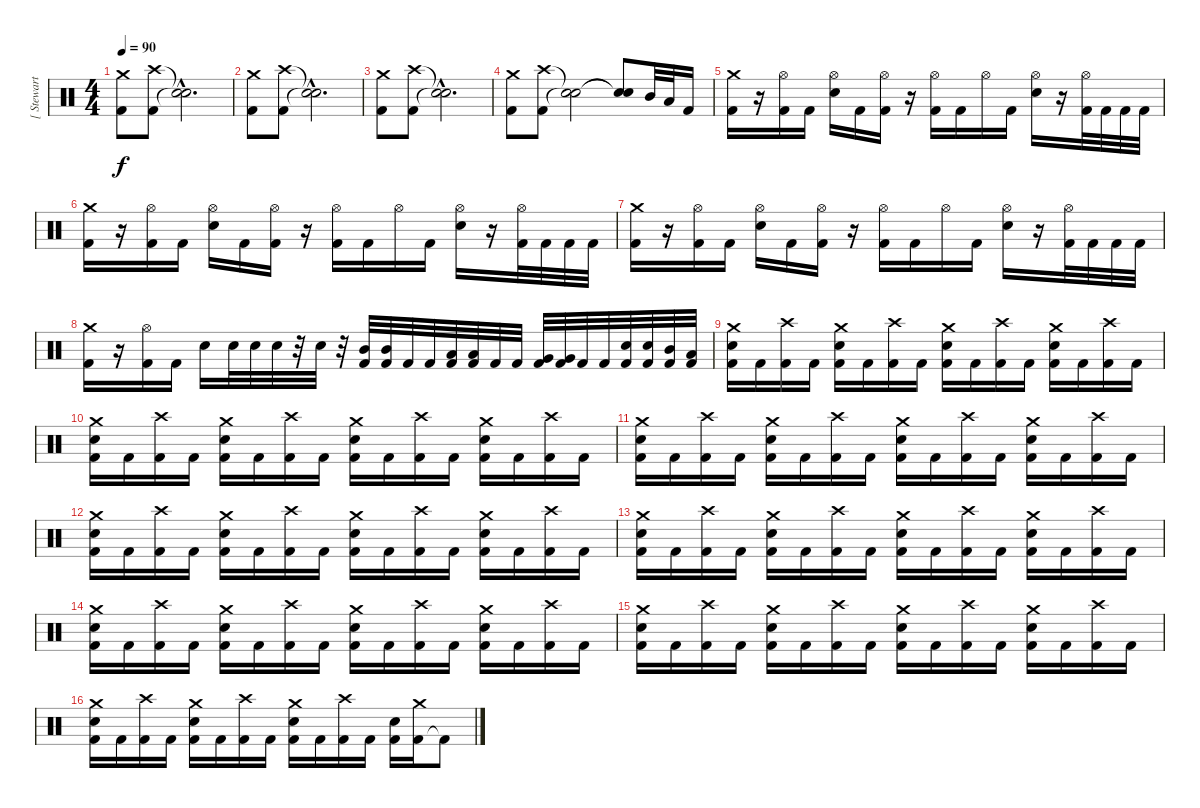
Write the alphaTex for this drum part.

\track ("[ Stewart ]" "[ Stewart ") {instrument percussion}
\staff {score}
\articulation defaults
\ts (4 4)
\tempo 90
\clef neutral
\ks c
("Kick (hit) 2" "Crash medium (hit)").8{dy f} ("Kick (hit) 2" "Crash high (hit)").8 ("Snare (hit)"{hac t} "Snare (hit)"{hac t}).2{d} |
("Kick (hit) 2" "Crash medium (hit)").8 ("Kick (hit) 2" "Crash high (hit)").8 ("Snare (hit)"{hac t} "Snare (hit)"{hac t}).2{d} |
("Kick (hit) 2" "Crash medium (hit)").8 ("Kick (hit) 2" "Crash high (hit)").8 ("Snare (hit)"{hac t} "Snare (hit)"{hac t}).2{d} |
("Kick (hit) 2" "Crash medium (hit)").8 ("Kick (hit) 2" "Crash high (hit)").8 ("Snare (hit)"{t} "Snare (hit)"{t}).2 ("Snare (hit)"{t} "Snare (hit)"{t}).8 "Mid Tom (hit)".32 "Low Tom (hit)".32 "Kick (hit) 2".16 |
("Kick (hit) 2" "Crash medium (hit)").16 r.16 ("Kick (hit) 2" "Hi-Hat (open)").16 "Kick (hit) 2".16 ("Electric Snare (hit)" "Hi-Hat (open)").16 "Kick (hit) 2".16 ("Kick (hit) 2" "Hi-Hat (open)").16 r.16 ("Kick (hit) 2" "Hi-Hat (open)").16 "Kick (hit) 2".16 "Hi-Hat (open)".16 "Kick (hit) 2".16 ("Electric Snare (hit)" "Hi-Hat (open)").16 r.16 ("Kick (hit) 2" "Hi-Hat (open)").32 "Kick (hit) 2".32 "Kick (hit) 2".32 "Kick (hit) 2".32 |
("Kick (hit) 2" "Crash medium (hit)").16 r.16 ("Kick (hit) 2" "Hi-Hat (open)").16 "Kick (hit) 2".16 ("Electric Snare (hit)" "Hi-Hat (open)").16 "Kick (hit) 2".16 ("Kick (hit) 2" "Hi-Hat (open)").16 r.16 ("Kick (hit) 2" "Hi-Hat (open)").16 "Kick (hit) 2".16 "Hi-Hat (open)".16 "Kick (hit) 2".16 ("Electric Snare (hit)" "Hi-Hat (open)").16 r.16 ("Kick (hit) 2" "Hi-Hat (open)").32 "Kick (hit) 2".32 "Kick (hit) 2".32 "Kick (hit) 2".32 |
("Kick (hit) 2" "Crash medium (hit)").16 r.16 ("Kick (hit) 2" "Hi-Hat (open)").16 "Kick (hit) 2".16 ("Electric Snare (hit)" "Hi-Hat (open)").16 "Kick (hit) 2".16 ("Kick (hit) 2" "Hi-Hat (open)").16 r.16 ("Kick (hit) 2" "Hi-Hat (open)").16 "Kick (hit) 2".16 "Hi-Hat (open)".16 "Kick (hit) 2".16 ("Electric Snare (hit)" "Hi-Hat (open)").16 r.16 ("Kick (hit) 2" "Hi-Hat (open)").32 "Kick (hit) 2".32 "Kick (hit) 2".32 "Kick (hit) 2".32 |
("Kick (hit) 2" "Crash medium (hit)").16 r.16 ("Kick (hit) 2" "Hi-Hat (open)").16 "Kick (hit) 2".16 "Electric Snare (hit)".16 "Electric Snare (hit)".32 "Electric Snare (hit)".32 "Electric Snare (hit)".32 r.32 "Electric Snare (hit)".32 r.32 ("Kick (hit) 2" "Mid Tom (hit)").32 ("Kick (hit) 2" "Mid Tom (hit)").32 "Kick (hit) 2".32 "Kick (hit) 2".32 ("Kick (hit) 2" "Low Tom (hit)").32 ("Kick (hit) 2" "Low Tom (hit)").32 "Kick (hit) 2".32 "Kick (hit) 2".32 ("Kick (hit) 2" "Very Low Tom (hit)").32 ("Kick (hit) 2" "Very Low Tom (hit)").32 "Kick (hit) 2".32 "Kick (hit) 2".32 ("Kick (hit) 2" "Electric Snare (hit)").32 ("Kick (hit) 2" "Electric Snare (hit)").32 ("Kick (hit) 2" "Mid Tom (hit)").32 ("Kick (hit) 2" "Low Tom (hit)").32 |
("Kick (hit) 2" "Electric Snare (hit)" "Crash medium (hit)").16 "Kick (hit) 2".16 ("Kick (hit) 2" "Crash high (hit)").16 "Kick (hit) 2".16 ("Kick (hit) 2" "Electric Snare (hit)" "Crash medium (hit)").16 "Kick (hit) 2".16 ("Kick (hit) 2" "Crash high (hit)").16 "Kick (hit) 2".16 ("Kick (hit) 2" "Electric Snare (hit)" "Crash medium (hit)").16 "Kick (hit) 2".16 ("Kick (hit) 2" "Crash high (hit)").16 "Kick (hit) 2".16 ("Kick (hit) 2" "Electric Snare (hit)" "Crash medium (hit)").16 "Kick (hit) 2".16 ("Kick (hit) 2" "Crash high (hit)").16 "Kick (hit) 2".16 |
("Kick (hit) 2" "Electric Snare (hit)" "Crash medium (hit)").16 "Kick (hit) 2".16 ("Kick (hit) 2" "Crash high (hit)").16 "Kick (hit) 2".16 ("Kick (hit) 2" "Electric Snare (hit)" "Crash medium (hit)").16 "Kick (hit) 2".16 ("Kick (hit) 2" "Crash high (hit)").16 "Kick (hit) 2".16 ("Kick (hit) 2" "Electric Snare (hit)" "Crash medium (hit)").16 "Kick (hit) 2".16 ("Kick (hit) 2" "Crash high (hit)").16 "Kick (hit) 2".16 ("Kick (hit) 2" "Electric Snare (hit)" "Crash medium (hit)").16 "Kick (hit) 2".16 ("Kick (hit) 2" "Crash high (hit)").16 "Kick (hit) 2".16 |
("Kick (hit) 2" "Electric Snare (hit)" "Crash medium (hit)").16 "Kick (hit) 2".16 ("Kick (hit) 2" "Crash high (hit)").16 "Kick (hit) 2".16 ("Kick (hit) 2" "Electric Snare (hit)" "Crash medium (hit)").16 "Kick (hit) 2".16 ("Kick (hit) 2" "Crash high (hit)").16 "Kick (hit) 2".16 ("Kick (hit) 2" "Electric Snare (hit)" "Crash medium (hit)").16 "Kick (hit) 2".16 ("Kick (hit) 2" "Crash high (hit)").16 "Kick (hit) 2".16 ("Kick (hit) 2" "Electric Snare (hit)" "Crash medium (hit)").16 "Kick (hit) 2".16 ("Kick (hit) 2" "Crash high (hit)").16 "Kick (hit) 2".16 |
("Kick (hit) 2" "Electric Snare (hit)" "Crash medium (hit)").16 "Kick (hit) 2".16 ("Kick (hit) 2" "Crash high (hit)").16 "Kick (hit) 2".16 ("Kick (hit) 2" "Electric Snare (hit)" "Crash medium (hit)").16 "Kick (hit) 2".16 ("Kick (hit) 2" "Crash high (hit)").16 "Kick (hit) 2".16 ("Kick (hit) 2" "Electric Snare (hit)" "Crash medium (hit)").16 "Kick (hit) 2".16 ("Kick (hit) 2" "Crash high (hit)").16 "Kick (hit) 2".16 ("Kick (hit) 2" "Electric Snare (hit)" "Crash medium (hit)").16 "Kick (hit) 2".16 ("Kick (hit) 2" "Crash high (hit)").16 "Kick (hit) 2".16 |
("Kick (hit) 2" "Electric Snare (hit)" "Crash medium (hit)").16 "Kick (hit) 2".16 ("Kick (hit) 2" "Crash high (hit)").16 "Kick (hit) 2".16 ("Kick (hit) 2" "Electric Snare (hit)" "Crash medium (hit)").16 "Kick (hit) 2".16 ("Kick (hit) 2" "Crash high (hit)").16 "Kick (hit) 2".16 ("Kick (hit) 2" "Electric Snare (hit)" "Crash medium (hit)").16 "Kick (hit) 2".16 ("Kick (hit) 2" "Crash high (hit)").16 "Kick (hit) 2".16 ("Kick (hit) 2" "Electric Snare (hit)" "Crash medium (hit)").16 "Kick (hit) 2".16 ("Kick (hit) 2" "Crash high (hit)").16 "Kick (hit) 2".16 |
("Kick (hit) 2" "Electric Snare (hit)" "Crash medium (hit)").16 "Kick (hit) 2".16 ("Kick (hit) 2" "Crash high (hit)").16 "Kick (hit) 2".16 ("Kick (hit) 2" "Electric Snare (hit)" "Crash medium (hit)").16 "Kick (hit) 2".16 ("Kick (hit) 2" "Crash high (hit)").16 "Kick (hit) 2".16 ("Kick (hit) 2" "Electric Snare (hit)" "Crash medium (hit)").16 "Kick (hit) 2".16 ("Kick (hit) 2" "Crash high (hit)").16 "Kick (hit) 2".16 ("Kick (hit) 2" "Electric Snare (hit)" "Crash medium (hit)").16 "Kick (hit) 2".16 ("Kick (hit) 2" "Crash high (hit)").16 "Kick (hit) 2".16 |
("Kick (hit) 2" "Electric Snare (hit)" "Crash medium (hit)").16 "Kick (hit) 2".16 ("Kick (hit) 2" "Crash high (hit)").16 "Kick (hit) 2".16 ("Kick (hit) 2" "Electric Snare (hit)" "Crash medium (hit)").16 "Kick (hit) 2".16 ("Kick (hit) 2" "Crash high (hit)").16 "Kick (hit) 2".16 ("Kick (hit) 2" "Electric Snare (hit)" "Crash medium (hit)").16 "Kick (hit) 2".16 ("Kick (hit) 2" "Crash high (hit)").16 "Kick (hit) 2".16 ("Kick (hit) 2" "Electric Snare (hit)" "Crash medium (hit)").16 "Kick (hit) 2".16 ("Kick (hit) 2" "Crash high (hit)").16 "Kick (hit) 2".16 |
("Kick (hit) 2" "Electric Snare (hit)" "Crash medium (hit)").16 "Kick (hit) 2".16 ("Kick (hit) 2" "Crash high (hit)").16 "Kick (hit) 2".16 ("Kick (hit) 2" "Electric Snare (hit)" "Crash medium (hit)").16 "Kick (hit) 2".16 ("Kick (hit) 2" "Crash high (hit)").16 "Kick (hit) 2".16 ("Kick (hit) 2" "Electric Snare (hit)" "Crash medium (hit)").16 "Kick (hit) 2".16 ("Kick (hit) 2" "Crash high (hit)").16 "Kick (hit) 2".16 ("Kick (hit) 2" "Electric Snare (hit)").16 ("Kick (hit) 2" "Crash medium (hit)").16 "Kick (hit) 2"{t}.8
